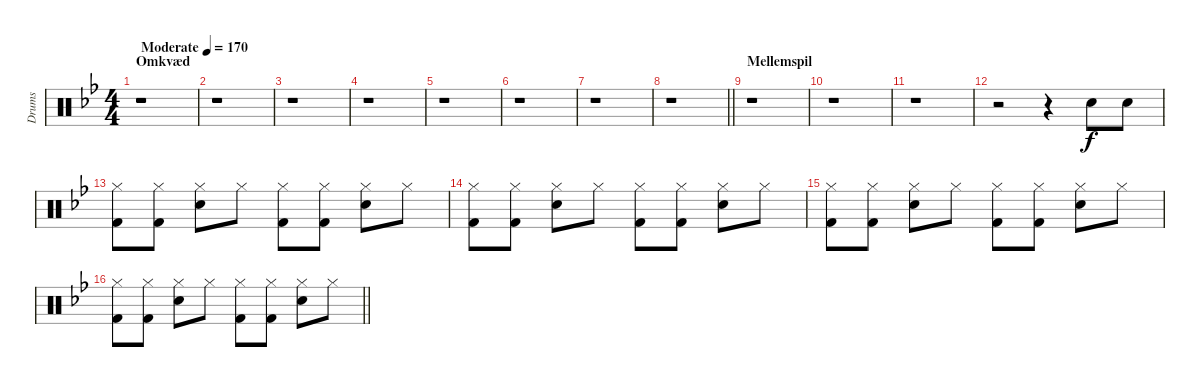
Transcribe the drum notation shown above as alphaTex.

\track ("Drums" "Drums") {instrument percussion}
\staff {score}
\articulation defaults
\ts (4 4)
\section ("" "Omkvæd")
\tempo (170 "Moderate")
\clef neutral
\ks bb
r.1{dy f} |
r.1 |
r.1 |
r.1 |
r.1 |
r.1 |
r.1 |
\barLineRight lightlight
r.1 |
\section ("" "Mellemspil")
r.1 |
r.1 |
r.1 |
r.2 r.4 "Snare (hit) 2".8 "Snare (hit) 2".8 |
("Hi-Hat (closed)" "Kick (hit) 2").8 ("Hi-Hat (closed)" "Kick (hit) 2").8 ("Hi-Hat (closed)" "Snare (hit) 2").8 "Hi-Hat (closed)".8 ("Hi-Hat (closed)" "Kick (hit) 2").8 ("Hi-Hat (closed)" "Kick (hit) 2").8 ("Hi-Hat (closed)" "Snare (hit) 2").8 "Hi-Hat (closed)".8 |
("Hi-Hat (closed)" "Kick (hit) 2").8 ("Hi-Hat (closed)" "Kick (hit) 2").8 ("Hi-Hat (closed)" "Snare (hit) 2").8 "Hi-Hat (closed)".8 ("Hi-Hat (closed)" "Kick (hit) 2").8 ("Hi-Hat (closed)" "Kick (hit) 2").8 ("Hi-Hat (closed)" "Snare (hit) 2").8 "Hi-Hat (closed)".8 |
("Hi-Hat (closed)" "Kick (hit) 2").8 ("Hi-Hat (closed)" "Kick (hit) 2").8 ("Hi-Hat (closed)" "Snare (hit) 2").8 "Hi-Hat (closed)".8 ("Hi-Hat (closed)" "Kick (hit) 2").8 ("Hi-Hat (closed)" "Kick (hit) 2").8 ("Hi-Hat (closed)" "Snare (hit) 2").8 "Hi-Hat (closed)".8 |
\barLineRight lightlight
("Hi-Hat (closed)" "Kick (hit) 2").8 ("Hi-Hat (closed)" "Kick (hit) 2").8 ("Hi-Hat (closed)" "Snare (hit) 2").8 "Hi-Hat (closed)".8 ("Hi-Hat (closed)" "Kick (hit) 2").8 ("Hi-Hat (closed)" "Kick (hit) 2").8 ("Hi-Hat (closed)" "Snare (hit) 2").8 "Hi-Hat (closed)".8
